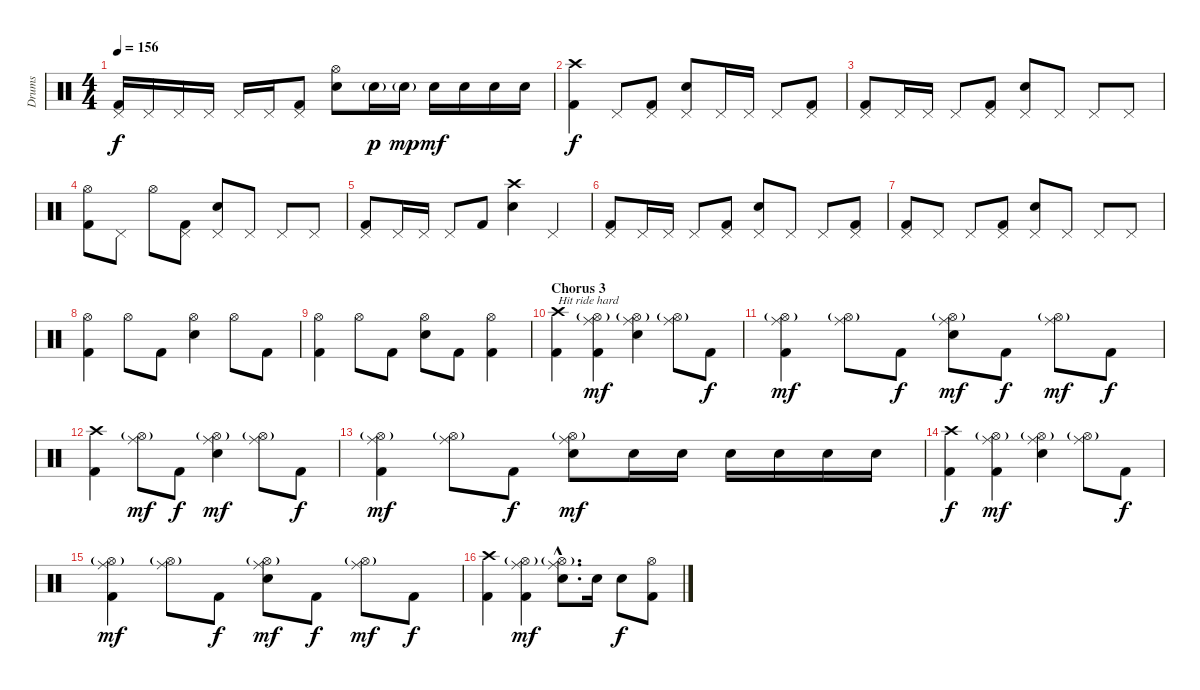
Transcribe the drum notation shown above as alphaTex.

\track ("Drums" "Drums") {instrument percussion}
\staff {score}
\articulation defaults
\ts (4 4)
\tempo 156
\clef neutral
\ks c
("Pedal Hi-Hat (hit)" "Kick (hit) 2").16{dy f} "Pedal Hi-Hat (hit)".16 "Pedal Hi-Hat (hit)".16 "Pedal Hi-Hat (hit)".16 "Pedal Hi-Hat (hit)".16 "Pedal Hi-Hat (hit)".16 ("Pedal Hi-Hat (hit)" "Kick (hit) 2").8 ("Hi-Hat (open)" "Electric Snare (hit)").8 "Electric Snare (hit)"{g}.16{dy p} "Electric Snare (hit)"{g}.16{dy mp} "Electric Snare (hit)".16{dy mf} "Electric Snare (hit)".16 "Electric Snare (hit)".16 "Electric Snare (hit)".16 |
("Crash high (hit)" "Kick (hit) 2").4{dy f} "Pedal Hi-Hat (hit)".8 ("Pedal Hi-Hat (hit)" "Kick (hit) 2").8 ("Pedal Hi-Hat (hit)" "Electric Snare (hit)").8 "Pedal Hi-Hat (hit)".16 "Pedal Hi-Hat (hit)".16 "Pedal Hi-Hat (hit)".8 ("Pedal Hi-Hat (hit)" "Kick (hit) 2").8 |
("Pedal Hi-Hat (hit)" "Kick (hit) 2").8 "Pedal Hi-Hat (hit)".16 "Pedal Hi-Hat (hit)".16 "Pedal Hi-Hat (hit)".8 ("Pedal Hi-Hat (hit)" "Kick (hit) 2").8 ("Pedal Hi-Hat (hit)" "Electric Snare (hit)").8 "Pedal Hi-Hat (hit)".8 "Pedal Hi-Hat (hit)".8 "Pedal Hi-Hat (hit)".8 |
("Hi-Hat (open)" "Kick (hit) 2").8 "Pedal Hi-Hat (hit)".8 "Hi-Hat (open)".8 ("Pedal Hi-Hat (hit)" "Kick (hit) 2").8 ("Pedal Hi-Hat (hit)" "Electric Snare (hit)").8 "Pedal Hi-Hat (hit)".8 "Pedal Hi-Hat (hit)".8 "Pedal Hi-Hat (hit)".8 |
("Pedal Hi-Hat (hit)" "Kick (hit) 2").8 "Pedal Hi-Hat (hit)".16 "Pedal Hi-Hat (hit)".16 "Pedal Hi-Hat (hit)".8 "Kick (hit) 2".8 ("Crash high (hit)" "Electric Snare (hit)").4 "Pedal Hi-Hat (hit)".4 |
("Pedal Hi-Hat (hit)" "Kick (hit) 2").8 "Pedal Hi-Hat (hit)".16 "Pedal Hi-Hat (hit)".16 "Pedal Hi-Hat (hit)".8 ("Pedal Hi-Hat (hit)" "Kick (hit) 2").8 ("Pedal Hi-Hat (hit)" "Electric Snare (hit)").8 "Pedal Hi-Hat (hit)".8 "Pedal Hi-Hat (hit)".8 ("Pedal Hi-Hat (hit)" "Kick (hit) 2").8 |
("Pedal Hi-Hat (hit)" "Kick (hit) 2").8 "Pedal Hi-Hat (hit)".8 "Pedal Hi-Hat (hit)".8 ("Pedal Hi-Hat (hit)" "Kick (hit) 2").8 ("Pedal Hi-Hat (hit)" "Electric Snare (hit)").8 "Pedal Hi-Hat (hit)".8 "Pedal Hi-Hat (hit)".8 "Pedal Hi-Hat (hit)".8 |
("Hi-Hat (open)" "Kick (hit) 2").4 "Hi-Hat (open)".8 "Kick (hit) 2".8 ("Hi-Hat (open)" "Electric Snare (hit)").4 "Hi-Hat (open)".8 "Kick (hit) 2".8 |
("Hi-Hat (open)" "Kick (hit) 2").4 "Hi-Hat (open)".8 "Kick (hit) 2".8 ("Hi-Hat (open)" "Electric Snare (hit)").8 "Kick (hit) 2".8 ("Hi-Hat (open)" "Kick (hit) 2").4 |
\section ("" "Chorus 3")
("Crash high (hit)" "Kick (hit) 2").4{txt "Hit ride hard"} ("Ride (middle)" "Hi-Hat (open)"{g} "Kick (hit) 2").4{dy mf} ("Ride (middle)" "Hi-Hat (open)"{g} "Electric Snare (hit)").4 ("Ride (middle)" "Hi-Hat (open)"{g}).8 "Kick (hit) 2".8{dy f} |
("Ride (middle)" "Hi-Hat (open)"{g} "Kick (hit) 2").4{dy mf} ("Ride (middle)" "Hi-Hat (open)"{g}).8 "Kick (hit) 2".8{dy f} ("Ride (middle)" "Hi-Hat (open)"{g} "Electric Snare (hit)").8{dy mf} "Kick (hit) 2".8{dy f} ("Ride (middle)" "Hi-Hat (open)"{g}).8{dy mf} "Kick (hit) 2".8{dy f} |
("Crash high (hit)" "Kick (hit) 2").4 ("Ride (middle)" "Hi-Hat (open)"{g}).8{dy mf} "Kick (hit) 2".8{dy f} ("Ride (middle)" "Hi-Hat (open)"{g} "Electric Snare (hit)").4{dy mf} ("Ride (middle)" "Hi-Hat (open)"{g}).8 "Kick (hit) 2".8{dy f} |
("Ride (middle)" "Hi-Hat (open)"{g} "Kick (hit) 2").4{dy mf} ("Ride (middle)" "Hi-Hat (open)"{g}).8 "Kick (hit) 2".8{dy f} ("Ride (middle)" "Hi-Hat (open)"{g} "Electric Snare (hit)").8{dy mf} "Electric Snare (hit)".16 "Electric Snare (hit)".16 "Electric Snare (hit)".16 "Electric Snare (hit)".16 "Electric Snare (hit)".16 "Electric Snare (hit)".16 |
("Crash high (hit)" "Kick (hit) 2").4{dy f} ("Ride (middle)" "Hi-Hat (open)"{g} "Kick (hit) 2").4{dy mf} ("Ride (middle)" "Hi-Hat (open)"{g} "Electric Snare (hit)").4 ("Ride (middle)" "Hi-Hat (open)"{g}).8 "Kick (hit) 2".8{dy f} |
("Ride (middle)" "Hi-Hat (open)"{g} "Kick (hit) 2").4{dy mf} ("Ride (middle)" "Hi-Hat (open)"{g}).8 "Kick (hit) 2".8{dy f} ("Ride (middle)" "Hi-Hat (open)"{g} "Electric Snare (hit)").8{dy mf} "Kick (hit) 2".8{dy f} ("Ride (middle)" "Hi-Hat (open)"{g}).8{dy mf} "Kick (hit) 2".8{dy f} |
("Crash high (hit)" "Kick (hit) 2").4 ("Ride (middle)" "Hi-Hat (open)"{g} "Kick (hit) 2").4{dy mf} ("Ride (middle)"{hac} "Hi-Hat (open)"{g hac} "Electric Snare (hit)"{hac}).8{d} "Electric Snare (hit)".16 "Electric Snare (hit)".8{dy f} ("Hi-Hat (open)" "Kick (hit) 2").8
